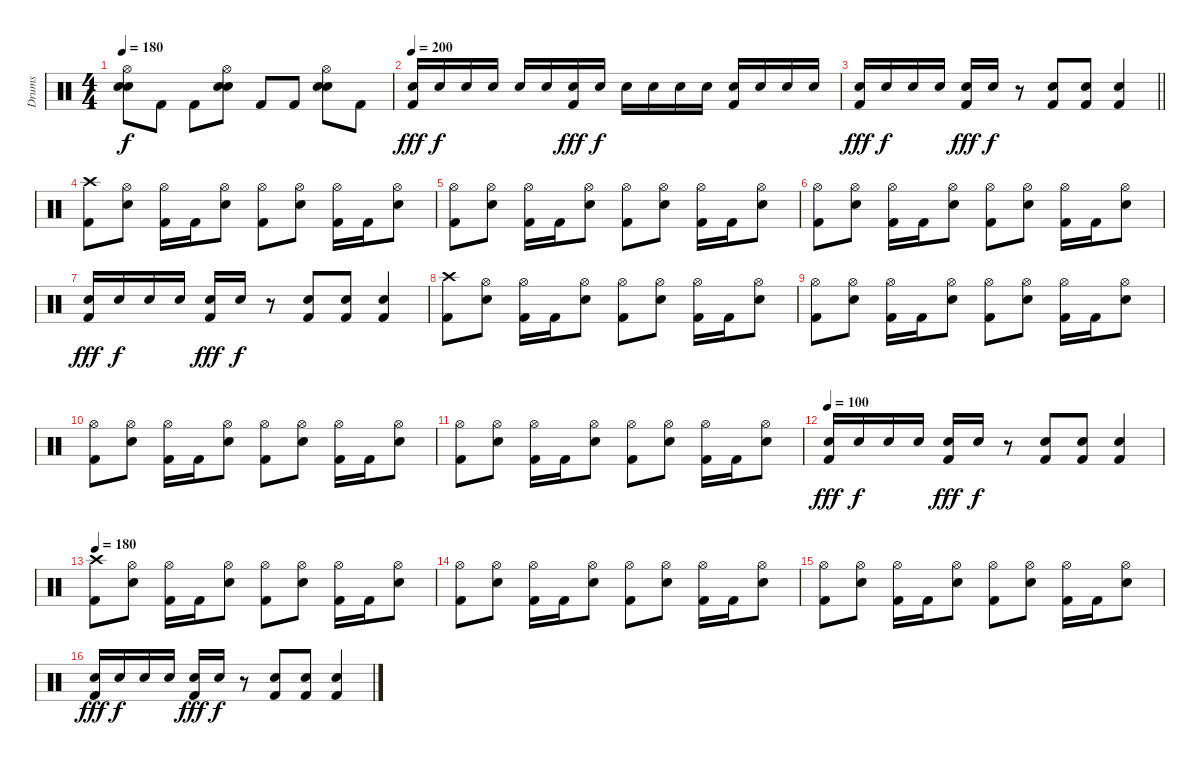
\track ("Drums" "Drums") {instrument percussion}
\staff {score}
\articulation defaults
\ts (4 4)
\tempo 180
\clef neutral
\ks c
("Electric Snare (hit)" "Snare (hit) 2" "Hi-Hat (open)").8{dy f} "Kick (hit) 2".8 "Kick (hit) 2".8 ("Electric Snare (hit)" "Snare (hit) 2" "Hi-Hat (open)").8 "Kick (hit) 2".8 "Kick (hit) 2".8 ("Electric Snare (hit)" "Snare (hit) 2" "Hi-Hat (open)").8 "Kick (hit) 2".8 |
\tempo 200
("Kick (hit) 2" "Snare (hit) 2").16{dy fff} "Snare (hit) 2".16{dy f} "Snare (hit) 2".16 "Snare (hit) 2".16 "Snare (hit) 2".16 "Snare (hit) 2".16 ("Kick (hit) 2" "Snare (hit) 2").16{dy fff} "Snare (hit) 2".16{dy f} "Snare (hit) 2".16 "Snare (hit) 2".16 "Snare (hit) 2".16 "Snare (hit) 2".16 ("Kick (hit) 2" "Snare (hit) 2").16 "Snare (hit) 2".16 "Snare (hit) 2".16 "Snare (hit) 2".16 |
\barLineRight lightlight
("Kick (hit) 2" "Snare (hit) 2").16{dy fff} "Snare (hit) 2".16{dy f} "Snare (hit) 2".16 "Snare (hit) 2".16 ("Kick (hit) 2" "Snare (hit) 2").16{dy fff} "Snare (hit) 2".16{dy f} r.8 ("Kick (hit) 2" "Snare (hit) 2").8 ("Kick (hit) 2" "Snare (hit) 2").8 ("Kick (hit) 2" "Snare (hit) 2").4 |
("Kick (hit) 2" "Crash high (hit)").8 ("Snare (hit) 2" "Hi-Hat (open)").8 ("Kick (hit) 2" "Hi-Hat (open)").16 "Kick (hit) 2".16 ("Snare (hit) 2" "Hi-Hat (open)").8 ("Kick (hit) 2" "Hi-Hat (open)").8 ("Snare (hit) 2" "Hi-Hat (open)").8 ("Kick (hit) 2" "Hi-Hat (open)").16 "Kick (hit) 2".16 ("Snare (hit) 2" "Hi-Hat (open)").8 |
("Kick (hit) 2" "Hi-Hat (open)").8 ("Snare (hit) 2" "Hi-Hat (open)").8 ("Kick (hit) 2" "Hi-Hat (open)").16 "Kick (hit) 2".16 ("Snare (hit) 2" "Hi-Hat (open)").8 ("Kick (hit) 2" "Hi-Hat (open)").8 ("Snare (hit) 2" "Hi-Hat (open)").8 ("Kick (hit) 2" "Hi-Hat (open)").16 "Kick (hit) 2".16 ("Snare (hit) 2" "Hi-Hat (open)").8 |
("Kick (hit) 2" "Hi-Hat (open)").8 ("Snare (hit) 2" "Hi-Hat (open)").8 ("Kick (hit) 2" "Hi-Hat (open)").16 "Kick (hit) 2".16 ("Snare (hit) 2" "Hi-Hat (open)").8 ("Kick (hit) 2" "Hi-Hat (open)").8 ("Snare (hit) 2" "Hi-Hat (open)").8 ("Kick (hit) 2" "Hi-Hat (open)").16 "Kick (hit) 2".16 ("Snare (hit) 2" "Hi-Hat (open)").8 |
("Kick (hit) 2" "Snare (hit) 2").16{dy fff} "Snare (hit) 2".16{dy f} "Snare (hit) 2".16 "Snare (hit) 2".16 ("Kick (hit) 2" "Snare (hit) 2").16{dy fff} "Snare (hit) 2".16{dy f} r.8 ("Kick (hit) 2" "Snare (hit) 2").8 ("Kick (hit) 2" "Snare (hit) 2").8 ("Kick (hit) 2" "Snare (hit) 2").4 |
("Kick (hit) 2" "Crash high (hit)").8 ("Snare (hit) 2" "Hi-Hat (open)").8 ("Kick (hit) 2" "Hi-Hat (open)").16 "Kick (hit) 2".16 ("Snare (hit) 2" "Hi-Hat (open)").8 ("Kick (hit) 2" "Hi-Hat (open)").8 ("Snare (hit) 2" "Hi-Hat (open)").8 ("Kick (hit) 2" "Hi-Hat (open)").16 "Kick (hit) 2".16 ("Snare (hit) 2" "Hi-Hat (open)").8 |
("Kick (hit) 2" "Hi-Hat (open)").8 ("Snare (hit) 2" "Hi-Hat (open)").8 ("Kick (hit) 2" "Hi-Hat (open)").16 "Kick (hit) 2".16 ("Snare (hit) 2" "Hi-Hat (open)").8 ("Kick (hit) 2" "Hi-Hat (open)").8 ("Snare (hit) 2" "Hi-Hat (open)").8 ("Kick (hit) 2" "Hi-Hat (open)").16 "Kick (hit) 2".16 ("Snare (hit) 2" "Hi-Hat (open)").8 |
("Kick (hit) 2" "Hi-Hat (open)").8 ("Snare (hit) 2" "Hi-Hat (open)").8 ("Kick (hit) 2" "Hi-Hat (open)").16 "Kick (hit) 2".16 ("Snare (hit) 2" "Hi-Hat (open)").8 ("Kick (hit) 2" "Hi-Hat (open)").8 ("Snare (hit) 2" "Hi-Hat (open)").8 ("Kick (hit) 2" "Hi-Hat (open)").16 "Kick (hit) 2".16 ("Snare (hit) 2" "Hi-Hat (open)").8 |
("Kick (hit) 2" "Hi-Hat (open)").8 ("Snare (hit) 2" "Hi-Hat (open)").8 ("Kick (hit) 2" "Hi-Hat (open)").16 "Kick (hit) 2".16 ("Snare (hit) 2" "Hi-Hat (open)").8 ("Kick (hit) 2" "Hi-Hat (open)").8 ("Snare (hit) 2" "Hi-Hat (open)").8 ("Kick (hit) 2" "Hi-Hat (open)").16 "Kick (hit) 2".16 ("Snare (hit) 2" "Hi-Hat (open)").8 |
\tempo 100
("Kick (hit) 2" "Snare (hit) 2").16{dy fff} "Snare (hit) 2".16{dy f} "Snare (hit) 2".16 "Snare (hit) 2".16 ("Kick (hit) 2" "Snare (hit) 2").16{dy fff} "Snare (hit) 2".16{dy f} r.8 ("Kick (hit) 2" "Snare (hit) 2").8 ("Kick (hit) 2" "Snare (hit) 2").8 ("Kick (hit) 2" "Snare (hit) 2").4 |
\tempo 180
("Kick (hit) 2" "Crash high (hit)").8 ("Snare (hit) 2" "Hi-Hat (open)").8 ("Kick (hit) 2" "Hi-Hat (open)").16 "Kick (hit) 2".16 ("Snare (hit) 2" "Hi-Hat (open)").8 ("Kick (hit) 2" "Hi-Hat (open)").8 ("Snare (hit) 2" "Hi-Hat (open)").8 ("Kick (hit) 2" "Hi-Hat (open)").16 "Kick (hit) 2".16 ("Snare (hit) 2" "Hi-Hat (open)").8 |
("Kick (hit) 2" "Hi-Hat (open)").8 ("Snare (hit) 2" "Hi-Hat (open)").8 ("Kick (hit) 2" "Hi-Hat (open)").16 "Kick (hit) 2".16 ("Snare (hit) 2" "Hi-Hat (open)").8 ("Kick (hit) 2" "Hi-Hat (open)").8 ("Snare (hit) 2" "Hi-Hat (open)").8 ("Kick (hit) 2" "Hi-Hat (open)").16 "Kick (hit) 2".16 ("Snare (hit) 2" "Hi-Hat (open)").8 |
("Kick (hit) 2" "Hi-Hat (open)").8 ("Snare (hit) 2" "Hi-Hat (open)").8 ("Kick (hit) 2" "Hi-Hat (open)").16 "Kick (hit) 2".16 ("Snare (hit) 2" "Hi-Hat (open)").8 ("Kick (hit) 2" "Hi-Hat (open)").8 ("Snare (hit) 2" "Hi-Hat (open)").8 ("Kick (hit) 2" "Hi-Hat (open)").16 "Kick (hit) 2".16 ("Snare (hit) 2" "Hi-Hat (open)").8 |
("Kick (hit) 2" "Snare (hit) 2").16{dy fff} "Snare (hit) 2".16{dy f} "Snare (hit) 2".16 "Snare (hit) 2".16 ("Kick (hit) 2" "Snare (hit) 2").16{dy fff} "Snare (hit) 2".16{dy f} r.8 ("Kick (hit) 2" "Snare (hit) 2").8 ("Kick (hit) 2" "Snare (hit) 2").8 ("Kick (hit) 2" "Snare (hit) 2").4
